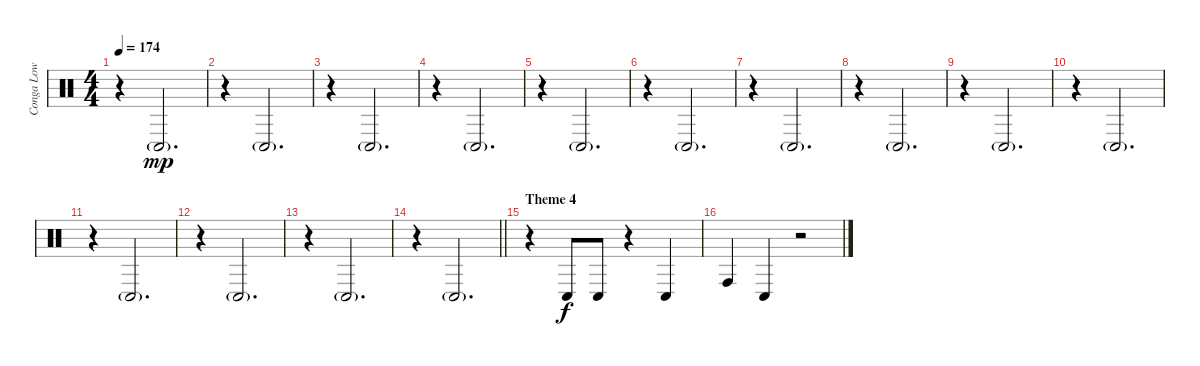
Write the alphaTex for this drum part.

\track ("Conga Low" "Conga Low") {instrument percussion}
\staff {score}
\articulation defaults
\ts (4 4)
\tempo 174
\clef neutral
\ks c
r.4{dy mp} "Conga low (hit)"{g}.2{d} |
r.4 "Conga low (hit)"{g}.2{d} |
r.4 "Conga low (hit)"{g}.2{d} |
r.4 "Conga low (hit)"{g}.2{d} |
r.4 "Conga low (hit)"{g}.2{d} |
r.4 "Conga low (hit)"{g}.2{d} |
r.4 "Conga low (hit)"{g}.2{d} |
r.4 "Conga low (hit)"{g}.2{d} |
r.4 "Conga low (hit)"{g}.2{d} |
r.4 "Conga low (hit)"{g}.2{d} |
r.4 "Conga low (hit)"{g}.2{d} |
r.4 "Conga low (hit)"{g}.2{d} |
r.4 "Conga low (hit)"{g}.2{d} |
\barLineRight lightlight
r.4 "Conga low (hit)"{g}.2{d} |
\section ("" "Theme 4")
r.4 "Conga low (hit)".8{dy f} "Conga low (hit)".8 r.4 "Conga low (hit)".4 |
"Conga high (hit)".4 "Conga low (hit)".4 r.2
